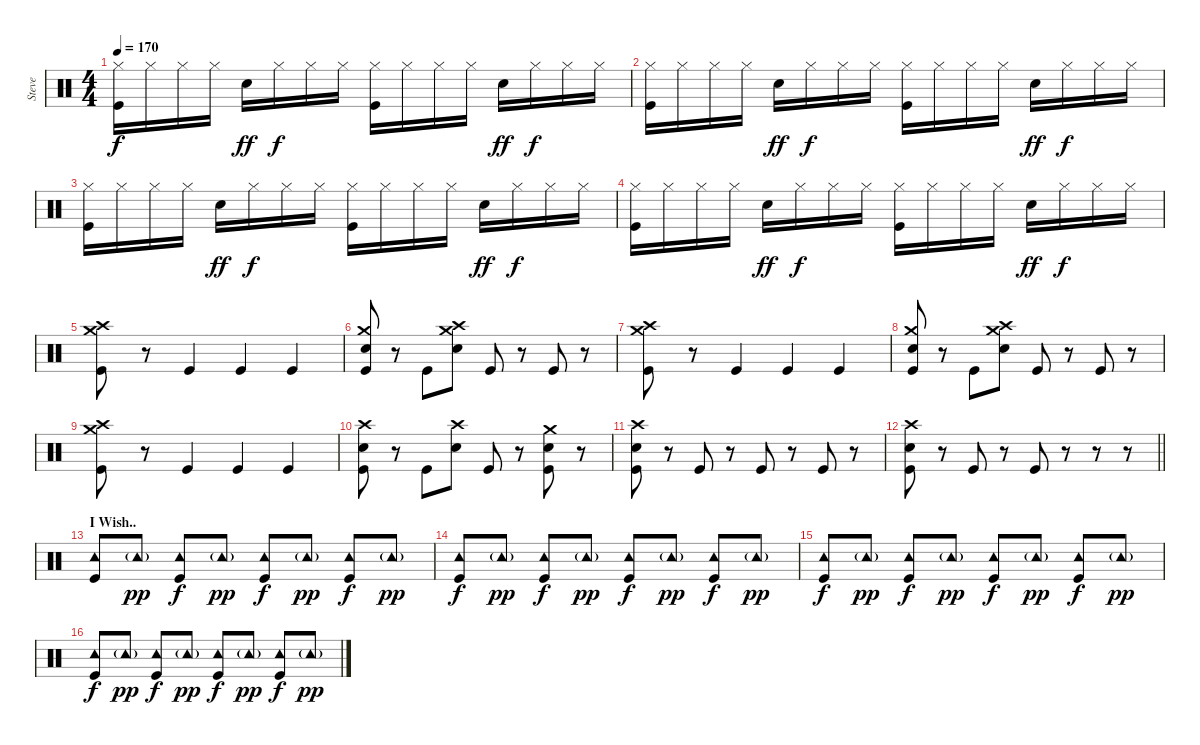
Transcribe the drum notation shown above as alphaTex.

\track ("Steve" "Steve") {instrument percussion}
\staff {score}
\articulation defaults
\ts (4 4)
\tempo 170
\clef neutral
\ks c
("Hi-Hat (closed)" "Kick (hit)").16{dy f} "Hi-Hat (closed)".16 "Hi-Hat (closed)".16 "Hi-Hat (closed)".16 "Electric Snare (hit)".16{dy ff} "Hi-Hat (closed)".16{dy f} "Hi-Hat (closed)".16 "Hi-Hat (closed)".16 ("Hi-Hat (closed)" "Kick (hit)").16 "Hi-Hat (closed)".16 "Hi-Hat (closed)".16 "Hi-Hat (closed)".16 "Electric Snare (hit)".16{dy ff} "Hi-Hat (closed)".16{dy f} "Hi-Hat (closed)".16 "Hi-Hat (closed)".16 |
("Hi-Hat (closed)" "Kick (hit)").16 "Hi-Hat (closed)".16 "Hi-Hat (closed)".16 "Hi-Hat (closed)".16 "Electric Snare (hit)".16{dy ff} "Hi-Hat (closed)".16{dy f} "Hi-Hat (closed)".16 "Hi-Hat (closed)".16 ("Hi-Hat (closed)" "Kick (hit)").16 "Hi-Hat (closed)".16 "Hi-Hat (closed)".16 "Hi-Hat (closed)".16 "Electric Snare (hit)".16{dy ff} "Hi-Hat (closed)".16{dy f} "Hi-Hat (closed)".16 "Hi-Hat (closed)".16 |
("Hi-Hat (closed)" "Kick (hit)").16 "Hi-Hat (closed)".16 "Hi-Hat (closed)".16 "Hi-Hat (closed)".16 "Electric Snare (hit)".16{dy ff} "Hi-Hat (closed)".16{dy f} "Hi-Hat (closed)".16 "Hi-Hat (closed)".16 ("Hi-Hat (closed)" "Kick (hit)").16 "Hi-Hat (closed)".16 "Hi-Hat (closed)".16 "Hi-Hat (closed)".16 "Electric Snare (hit)".16{dy ff} "Hi-Hat (closed)".16{dy f} "Hi-Hat (closed)".16 "Hi-Hat (closed)".16 |
("Hi-Hat (closed)" "Kick (hit)").16 "Hi-Hat (closed)".16 "Hi-Hat (closed)".16 "Hi-Hat (closed)".16 "Electric Snare (hit)".16{dy ff} "Hi-Hat (closed)".16{dy f} "Hi-Hat (closed)".16 "Hi-Hat (closed)".16 ("Hi-Hat (closed)" "Kick (hit)").16 "Hi-Hat (closed)".16 "Hi-Hat (closed)".16 "Hi-Hat (closed)".16 "Electric Snare (hit)".16{dy ff} "Hi-Hat (closed)".16{dy f} "Hi-Hat (closed)".16 "Hi-Hat (closed)".16 |
("Crash medium (hit)" "Crash high (hit)" "Kick (hit)").8 r.8 "Kick (hit)".4 "Kick (hit)".4 "Kick (hit)".4 |
("Crash medium (hit)" "Hand Clap (hit)" "Kick (hit)").8 r.8 "Kick (hit)".8 ("Crash medium (hit)" "Crash high (hit)" "Electric Snare (hit)").8 "Kick (hit)".8 r.8 "Kick (hit)".8 r.8 |
("Crash medium (hit)" "Crash high (hit)" "Kick (hit)").8 r.8 "Kick (hit)".4 "Kick (hit)".4 "Kick (hit)".4 |
("Crash medium (hit)" "Hand Clap (hit)" "Kick (hit)").8 r.8 "Kick (hit)".8 ("Crash medium (hit)" "Crash high (hit)" "Electric Snare (hit)").8 "Kick (hit)".8 r.8 "Kick (hit)".8 r.8 |
("Crash medium (hit)" "Crash high (hit)" "Kick (hit)").8 r.8 "Kick (hit)".4 "Kick (hit)".4 "Kick (hit)".4 |
("Crash high (hit)" "Electric Snare (hit)" "Kick (hit)").8 r.8 "Kick (hit)".8 ("Crash high (hit)" "Electric Snare (hit)").8 "Kick (hit)".8 r.8 ("Crash medium (hit)" "Electric Snare (hit)" "Kick (hit)").8 r.8 |
("Electric Snare (hit)" "Crash high (hit)" "Kick (hit)").8 r.8 "Kick (hit)".8 r.8 "Kick (hit)".8 r.8 "Kick (hit)".8 r.8 |
\barLineRight lightlight
("Crash high (hit)" "Electric Snare (hit)" "Kick (hit)").8 r.8 "Kick (hit)".8 r.8 "Kick (hit)".8 r.8 r.8 r.8 |
\section ("" "I Wish..")
("Tambourine (hit)" "Kick (hit)").8 "Tambourine (hit)"{g}.8{dy pp} ("Tambourine (hit)" "Kick (hit)").8{dy f} "Tambourine (hit)"{g}.8{dy pp} ("Tambourine (hit)" "Kick (hit)").8{dy f} "Tambourine (hit)"{g}.8{dy pp} ("Tambourine (hit)" "Kick (hit)").8{dy f} "Tambourine (hit)"{g}.8{dy pp} |
("Tambourine (hit)" "Kick (hit)").8{dy f} "Tambourine (hit)"{g}.8{dy pp} ("Tambourine (hit)" "Kick (hit)").8{dy f} "Tambourine (hit)"{g}.8{dy pp} ("Tambourine (hit)" "Kick (hit)").8{dy f} "Tambourine (hit)"{g}.8{dy pp} ("Tambourine (hit)" "Kick (hit)").8{dy f} "Tambourine (hit)"{g}.8{dy pp} |
("Tambourine (hit)" "Kick (hit)").8{dy f} "Tambourine (hit)"{g}.8{dy pp} ("Tambourine (hit)" "Kick (hit)").8{dy f} "Tambourine (hit)"{g}.8{dy pp} ("Tambourine (hit)" "Kick (hit)").8{dy f} "Tambourine (hit)"{g}.8{dy pp} ("Tambourine (hit)" "Kick (hit)").8{dy f} "Tambourine (hit)"{g}.8{dy pp} |
("Tambourine (hit)" "Kick (hit)").8{dy f} "Tambourine (hit)"{g}.8{dy pp} ("Tambourine (hit)" "Kick (hit)").8{dy f} "Tambourine (hit)"{g}.8{dy pp} ("Tambourine (hit)" "Kick (hit)").8{dy f} "Tambourine (hit)"{g}.8{dy pp} ("Tambourine (hit)" "Kick (hit)").8{dy f} "Tambourine (hit)"{g}.8{dy pp}
